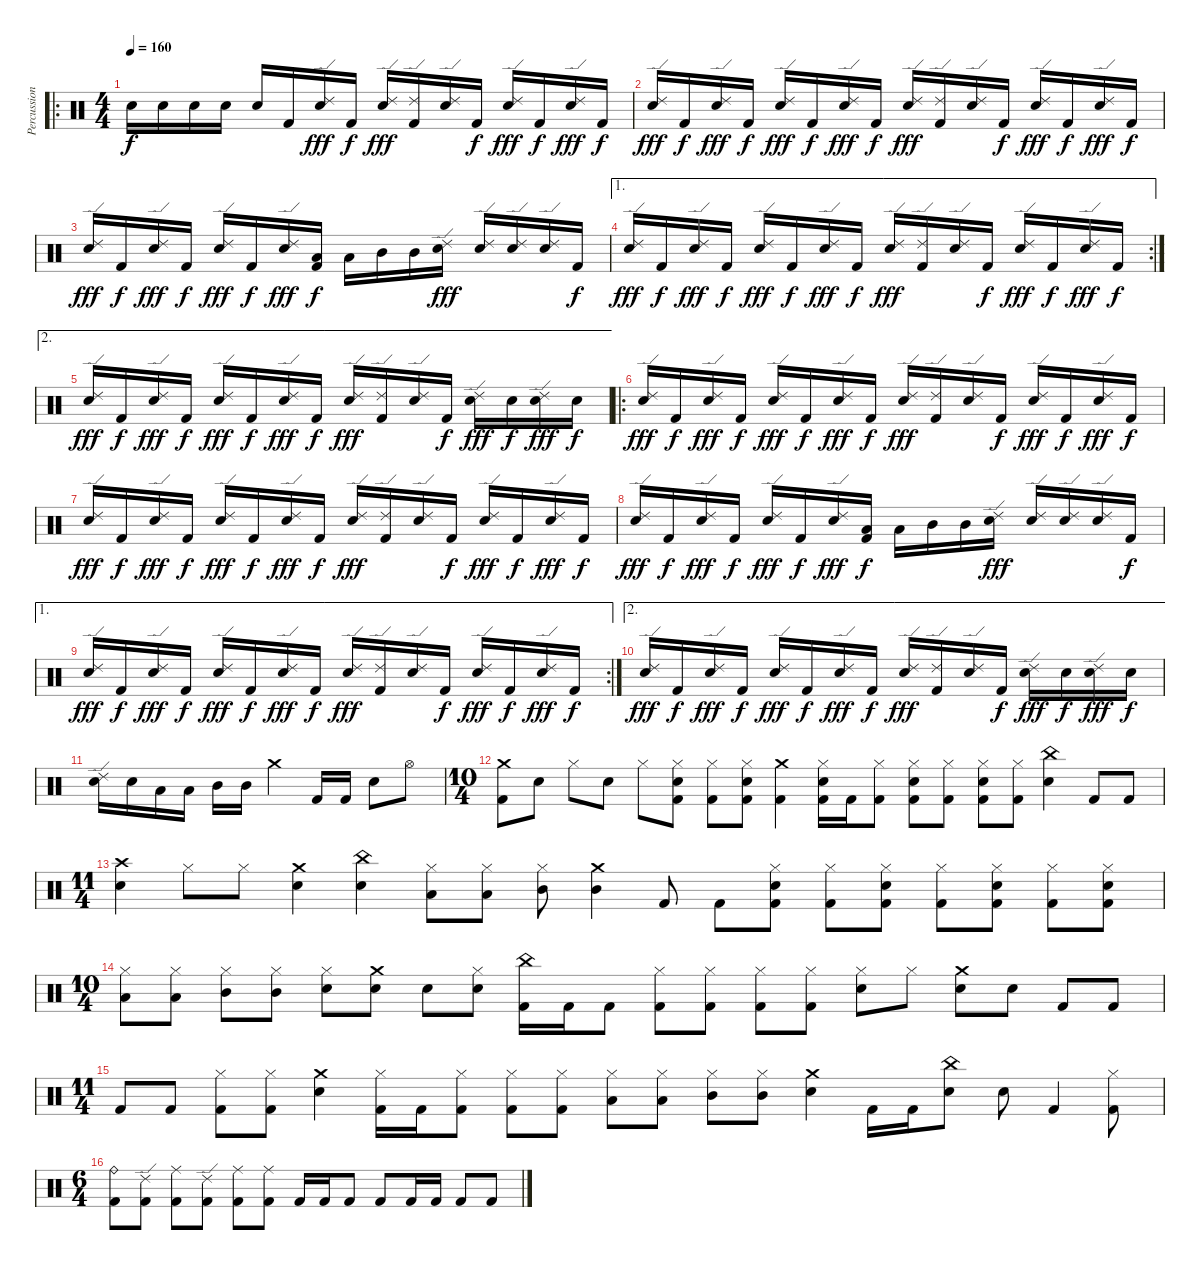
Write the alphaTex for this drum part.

\track ("Percussion" "Percussion") {instrument percussion}
\staff {score}
\articulation defaults
\ro
\ts (4 4)
\tempo 160
\clef neutral
\ks c "Electric Snare (hit)".16{dy f} "Electric Snare (hit)".16 "Electric Snare (hit)".16 "Electric Snare (hit)".16 "Electric Snare (hit)".16 "Kick (hit) 2".16
("Ride (edge) 2" "Electric Snare (hit)").16{dy fff} "Kick (hit) 2".16{dy f} ("Ride (edge) 2" "Electric Snare (hit)").16{dy fff} ("Ride (edge) 2" "Kick (hit) 2").16 ("Ride (edge) 2" "Electric Snare (hit)").16 "Kick (hit) 2".16{dy f} ("Ride (edge) 2" "Electric Snare (hit)").16{dy fff} "Kick (hit) 2".16{dy f} ("Ride (edge) 2" "Electric Snare (hit)").16{dy fff} "Kick (hit) 2".16{dy f} |
("Ride (edge) 2" "Electric Snare (hit)").16{dy fff} "Kick (hit) 2".16{dy f} ("Ride (edge) 2" "Electric Snare (hit)").16{dy fff} "Kick (hit) 2".16{dy f} ("Ride (edge) 2" "Electric Snare (hit)").16{dy fff} "Kick (hit) 2".16{dy f} ("Ride (edge) 2" "Electric Snare (hit)").16{dy fff} "Kick (hit) 2".16{dy f} ("Ride (edge) 2" "Electric Snare (hit)").16{dy fff} ("Ride (edge) 2" "Kick (hit) 2").16 ("Ride (edge) 2" "Electric Snare (hit)").16 "Kick (hit) 2".16{dy f} ("Ride (edge) 2" "Electric Snare (hit)").16{dy fff} "Kick (hit) 2".16{dy f} ("Ride (edge) 2" "Electric Snare (hit)").16{dy fff} "Kick (hit) 2".16{dy f} |
("Ride (edge) 2" "Electric Snare (hit)").16{dy fff} "Kick (hit) 2".16{dy f} ("Ride (edge) 2" "Electric Snare (hit)").16{dy fff} "Kick (hit) 2".16{dy f} ("Ride (edge) 2" "Electric Snare (hit)").16{dy fff} "Kick (hit) 2".16{dy f} ("Ride (edge) 2" "Electric Snare (hit)").16{dy fff} ("Low Tom (hit)" "Kick (hit) 2").16{dy f} "Low Tom (hit)".16 "Mid Tom (hit)".16 "Mid Tom (hit)".16 ("Ride (edge) 2" "Electric Snare (hit)").16{dy fff} ("Ride (edge) 2" "Electric Snare (hit)").16 ("Ride (edge) 2" "Electric Snare (hit)").16 ("Ride (edge) 2" "Electric Snare (hit)").16 "Kick (hit) 2".16{dy f} |
\ae 1
\rc 2
("Ride (edge) 2" "Electric Snare (hit)").16{dy fff} "Kick (hit) 2".16{dy f} ("Ride (edge) 2" "Electric Snare (hit)").16{dy fff} "Kick (hit) 2".16{dy f} ("Ride (edge) 2" "Electric Snare (hit)").16{dy fff} "Kick (hit) 2".16{dy f} ("Ride (edge) 2" "Electric Snare (hit)").16{dy fff} "Kick (hit) 2".16{dy f} ("Ride (edge) 2" "Electric Snare (hit)").16{dy fff} ("Ride (edge) 2" "Kick (hit) 2").16 ("Ride (edge) 2" "Electric Snare (hit)").16 "Kick (hit) 2".16{dy f} ("Ride (edge) 2" "Electric Snare (hit)").16{dy fff} "Kick (hit) 2".16{dy f} ("Ride (edge) 2" "Electric Snare (hit)").16{dy fff} "Kick (hit) 2".16{dy f} |
\ae 2
("Ride (edge) 2" "Electric Snare (hit)").16{dy fff} "Kick (hit) 2".16{dy f} ("Ride (edge) 2" "Electric Snare (hit)").16{dy fff} "Kick (hit) 2".16{dy f} ("Ride (edge) 2" "Electric Snare (hit)").16{dy fff} "Kick (hit) 2".16{dy f} ("Ride (edge) 2" "Electric Snare (hit)").16{dy fff} "Kick (hit) 2".16{dy f} ("Ride (edge) 2" "Electric Snare (hit)").16{dy fff} ("Ride (edge) 2" "Kick (hit) 2").16 ("Ride (edge) 2" "Electric Snare (hit)").16 "Kick (hit) 2".16{dy f} ("Ride (edge) 2" "Electric Snare (hit)").16{dy fff} "Electric Snare (hit)".16{dy f} ("Ride (edge) 2" "Electric Snare (hit)").16{dy fff} "Electric Snare (hit)".16{dy f} |
\ro
("Ride (edge) 2" "Electric Snare (hit)").16{dy fff} "Kick (hit) 2".16{dy f} ("Ride (edge) 2" "Electric Snare (hit)").16{dy fff} "Kick (hit) 2".16{dy f} ("Ride (edge) 2" "Electric Snare (hit)").16{dy fff} "Kick (hit) 2".16{dy f} ("Ride (edge) 2" "Electric Snare (hit)").16{dy fff} "Kick (hit) 2".16{dy f} ("Ride (edge) 2" "Electric Snare (hit)").16{dy fff} ("Ride (edge) 2" "Kick (hit) 2").16 ("Ride (edge) 2" "Electric Snare (hit)").16 "Kick (hit) 2".16{dy f} ("Ride (edge) 2" "Electric Snare (hit)").16{dy fff} "Kick (hit) 2".16{dy f} ("Ride (edge) 2" "Electric Snare (hit)").16{dy fff} "Kick (hit) 2".16{dy f} |
("Ride (edge) 2" "Electric Snare (hit)").16{dy fff} "Kick (hit) 2".16{dy f} ("Ride (edge) 2" "Electric Snare (hit)").16{dy fff} "Kick (hit) 2".16{dy f} ("Ride (edge) 2" "Electric Snare (hit)").16{dy fff} "Kick (hit) 2".16{dy f} ("Ride (edge) 2" "Electric Snare (hit)").16{dy fff} "Kick (hit) 2".16{dy f} ("Ride (edge) 2" "Electric Snare (hit)").16{dy fff} ("Ride (edge) 2" "Kick (hit) 2").16 ("Ride (edge) 2" "Electric Snare (hit)").16 "Kick (hit) 2".16{dy f} ("Ride (edge) 2" "Electric Snare (hit)").16{dy fff} "Kick (hit) 2".16{dy f} ("Ride (edge) 2" "Electric Snare (hit)").16{dy fff} "Kick (hit) 2".16{dy f} |
("Ride (edge) 2" "Electric Snare (hit)").16{dy fff} "Kick (hit) 2".16{dy f} ("Ride (edge) 2" "Electric Snare (hit)").16{dy fff} "Kick (hit) 2".16{dy f} ("Ride (edge) 2" "Electric Snare (hit)").16{dy fff} "Kick (hit) 2".16{dy f} ("Ride (edge) 2" "Electric Snare (hit)").16{dy fff} ("Low Tom (hit)" "Kick (hit) 2").16{dy f} "Low Tom (hit)".16 "Mid Tom (hit)".16 "Mid Tom (hit)".16 ("Ride (edge) 2" "Electric Snare (hit)").16{dy fff} ("Ride (edge) 2" "Electric Snare (hit)").16 ("Ride (edge) 2" "Electric Snare (hit)").16 ("Ride (edge) 2" "Electric Snare (hit)").16 "Kick (hit) 2".16{dy f} |
\ae 1
\rc 2
("Ride (edge) 2" "Electric Snare (hit)").16{dy fff} "Kick (hit) 2".16{dy f} ("Ride (edge) 2" "Electric Snare (hit)").16{dy fff} "Kick (hit) 2".16{dy f} ("Ride (edge) 2" "Electric Snare (hit)").16{dy fff} "Kick (hit) 2".16{dy f} ("Ride (edge) 2" "Electric Snare (hit)").16{dy fff} "Kick (hit) 2".16{dy f} ("Ride (edge) 2" "Electric Snare (hit)").16{dy fff} ("Ride (edge) 2" "Kick (hit) 2").16 ("Ride (edge) 2" "Electric Snare (hit)").16 "Kick (hit) 2".16{dy f} ("Ride (edge) 2" "Electric Snare (hit)").16{dy fff} "Kick (hit) 2".16{dy f} ("Ride (edge) 2" "Electric Snare (hit)").16{dy fff} "Kick (hit) 2".16{dy f} |
\ae 2
("Ride (edge) 2" "Electric Snare (hit)").16{dy fff} "Kick (hit) 2".16{dy f} ("Ride (edge) 2" "Electric Snare (hit)").16{dy fff} "Kick (hit) 2".16{dy f} ("Ride (edge) 2" "Electric Snare (hit)").16{dy fff} "Kick (hit) 2".16{dy f} ("Ride (edge) 2" "Electric Snare (hit)").16{dy fff} "Kick (hit) 2".16{dy f} ("Ride (edge) 2" "Electric Snare (hit)").16{dy fff} ("Ride (edge) 2" "Kick (hit) 2").16 ("Ride (edge) 2" "Electric Snare (hit)").16 "Kick (hit) 2".16{dy f} ("Ride (edge) 2" "Electric Snare (hit)").16{dy fff} "Electric Snare (hit)".16{dy f} ("Ride (edge) 2" "Electric Snare (hit)").16{dy fff} "Electric Snare (hit)".16{dy f} |
("Ride (edge) 2" "Electric Snare (hit)").16 "Electric Snare (hit)".16 "Low Tom (hit)".16 "Low Tom (hit)".16 "Mid Tom (hit)".16 "Mid Tom (hit)".16 "Crash medium (hit)".4 "Kick (hit) 2".16 "Kick (hit) 2".16 "Electric Snare (hit)".8 "Hi-Hat (open)".8 |
\ts (10 4)
("Crash medium (hit)" "Kick (hit) 2").8 "Electric Snare (hit)".8 "Hi-Hat (closed)".8 "Electric Snare (hit)".8 "Hi-Hat (closed)".8 ("Hi-Hat (closed)" "Electric Snare (hit)" "Kick (hit) 2").8 ("Hi-Hat (closed)" "Kick (hit) 2").8 ("Hi-Hat (closed)" "Electric Snare (hit)" "Kick (hit) 2").8 ("Crash medium (hit)" "Kick (hit) 2").4 ("Hi-Hat (closed)" "Electric Snare (hit)" "Kick (hit) 2").16 "Kick (hit) 2".16 ("Hi-Hat (closed)" "Kick (hit) 2").8 ("Hi-Hat (closed)" "Electric Snare (hit)" "Kick (hit) 2").8 ("Hi-Hat (closed)" "Kick (hit) 2").8 ("Hi-Hat (closed)" "Electric Snare (hit)" "Kick (hit) 2").8 ("Hi-Hat (closed)" "Kick (hit) 2").8 ("China (hit)" "Electric Snare (hit)").4 "Kick (hit) 2".8 "Kick (hit) 2".8 |
\ts (11 4)
("Crash high (hit)" "Electric Snare (hit)").4 "Hi-Hat (closed)".8 "Hi-Hat (closed)".8 ("Crash medium (hit)" "Electric Snare (hit)").4 ("China (hit)" "Electric Snare (hit)").4 ("Hi-Hat (closed)" "Low Tom (hit)").8 ("Hi-Hat (closed)" "Low Tom (hit)").8 ("Hi-Hat (closed)" "Mid Tom (hit)").8 ("Crash medium (hit)" "Mid Tom (hit)").4 "Kick (hit) 2".8 "Kick (hit) 2".8 ("Hi-Hat (closed)" "Electric Snare (hit)" "Kick (hit) 2").8 ("Hi-Hat (closed)" "Kick (hit) 2").8 ("Hi-Hat (closed)" "Electric Snare (hit)" "Kick (hit) 2").8 ("Hi-Hat (closed)" "Kick (hit) 2").8 ("Hi-Hat (closed)" "Electric Snare (hit)" "Kick (hit) 2").8 ("Hi-Hat (closed)" "Kick (hit) 2").8 ("Hi-Hat (closed)" "Electric Snare (hit)" "Kick (hit) 2").8 |
\ts (10 4)
("Hi-Hat (closed)" "Low Tom (hit)").8 ("Hi-Hat (closed)" "Low Tom (hit)").8 ("Hi-Hat (closed)" "Mid Tom (hit)").8 ("Hi-Hat (closed)" "Mid Tom (hit)").8 ("Hi-Hat (closed)" "Electric Snare (hit)").8 ("Crash medium (hit)" "Electric Snare (hit)").8 "Electric Snare (hit)".8 ("Hi-Hat (closed)" "Electric Snare (hit)").8 ("China (hit)" "Kick (hit) 2").16 "Kick (hit) 2".16 "Kick (hit) 2".8 ("Hi-Hat (closed)" "Kick (hit) 2").8 ("Hi-Hat (closed)" "Kick (hit) 2").8 ("Hi-Hat (closed)" "Kick (hit) 2").8 ("Hi-Hat (closed)" "Kick (hit) 2").8 ("Hi-Hat (closed)" "Electric Snare (hit)").8 "Hi-Hat (closed)".8 ("Crash medium (hit)" "Electric Snare (hit)").8 "Electric Snare (hit)".8 "Kick (hit) 2".8 "Kick (hit) 2".8 |
\ts (11 4)
"Kick (hit) 2".8 "Kick (hit) 2".8 ("Hi-Hat (closed)" "Kick (hit) 2").8 ("Hi-Hat (closed)" "Kick (hit) 2").8 ("Crash medium (hit)" "Electric Snare (hit)").4 ("Hi-Hat (closed)" "Kick (hit) 2").16 "Kick (hit) 2".16 ("Hi-Hat (closed)" "Kick (hit) 2").8 ("Hi-Hat (closed)" "Kick (hit) 2").8 ("Hi-Hat (closed)" "Kick (hit) 2").8 ("Hi-Hat (closed)" "Low Tom (hit)").8 ("Hi-Hat (closed)" "Low Tom (hit)").8 ("Hi-Hat (closed)" "Mid Tom (hit)").8 ("Hi-Hat (closed)" "Mid Tom (hit)").8 ("Crash medium (hit)" "Electric Snare (hit)").4 "Kick (hit) 2".16 "Kick (hit) 2".16 ("China (hit)" "Electric Snare (hit)").8 "Electric Snare (hit)".8 "Kick (hit) 2".4 ("Hi-Hat (closed)" "Kick (hit) 2").8 |
\ts (6 4)
("Ride (bell)" "Kick (hit) 2").8 ("Ride (edge) 2" "Kick (hit) 2").8 ("Ride (middle)" "Kick (hit) 2").8 ("Ride (edge) 2" "Kick (hit) 2").8 ("Ride (middle)" "Kick (hit) 2").8 ("Ride (middle)" "Kick (hit) 2").8 "Kick (hit) 2".16 "Kick (hit) 2".16 "Kick (hit) 2".8 "Kick (hit) 2".8 "Kick (hit) 2".16 "Kick (hit) 2".16 "Kick (hit) 2".8 "Kick (hit) 2".8
